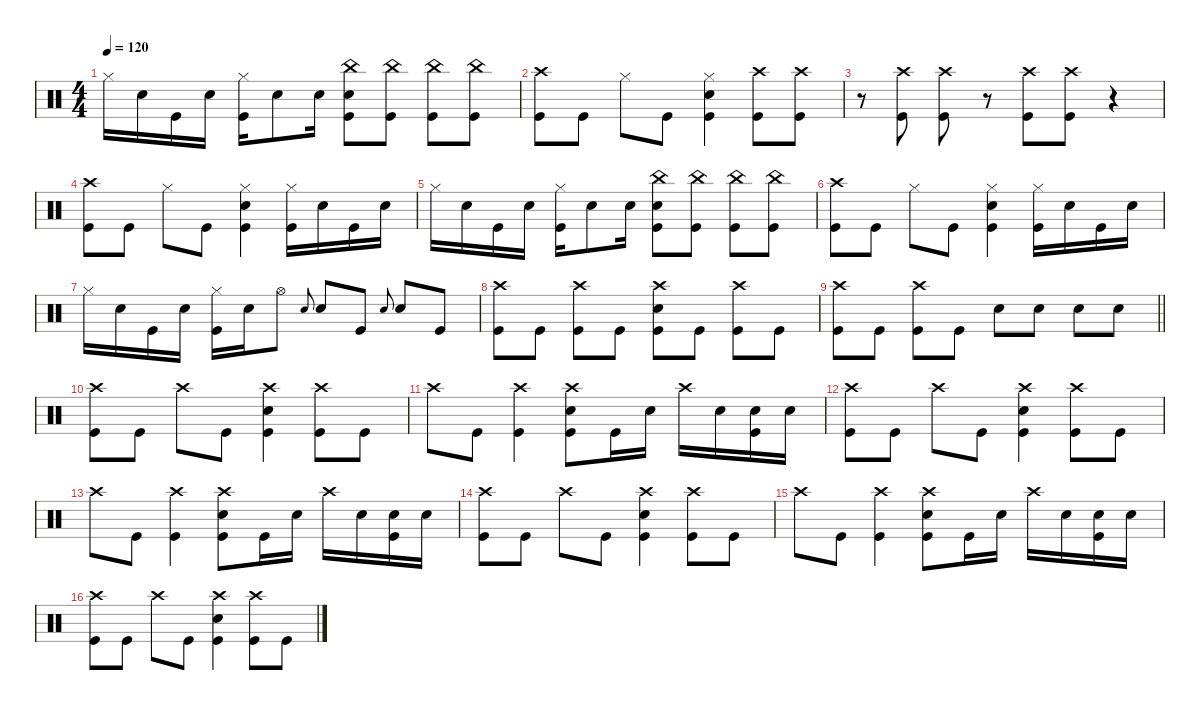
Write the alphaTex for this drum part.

\defaultSystemsLayout 4
\hideDynamics
\bracketExtendMode nobrackets
\singleTrackTrackNamePolicy hidden
\multiTrackTrackNamePolicy hidden
\firstSystemTrackNameMode fullname
\firstSystemTrackNameOrientation horizontal
\otherSystemsTrackNameOrientation horizontal
\track ("Drums" "drm.") {instrument percussion}
\staff {score}
\articulation defaults
\ts (4 4)
\tempo 120
\clef neutral
\ks c "Hi-Hat (closed)".16{dy f beam Down} "Snare (hit) 2".16{beam Down} "Kick (hit)".16{beam Down} "Snare (hit) 2".16{beam Down}
("Hi-Hat (closed)" "Kick (hit)").16{beam Down} "Snare (hit) 2".8{beam Down} "Snare (hit) 2".16{beam Down} ("Kick (hit)" "Snare (hit) 2" "China (hit)").8{beam Down} ("Kick (hit)" "China (hit)").8{beam Down} ("Kick (hit)" "China (hit)").8{beam Down} ("Kick (hit)" "China (hit)").8{beam Down} |
("Crash high (hit)" "Kick (hit)").8{beam Down} "Kick (hit)".8{beam Down} "Hi-Hat (closed)".8{beam Down} "Kick (hit)".8{beam Down} ("Snare (hit) 2" "Hi-Hat (closed)" "Kick (hit)").4{beam Down} ("Crash high (hit)" "Kick (hit)").8{beam Down} ("Kick (hit)" "Crash high (hit)").8{beam Down} |
r.8{beam Down} ("Crash high (hit)" "Kick (hit)").8{beam Down} ("Kick (hit)" "Crash high (hit)").8{beam Down} r.8{beam Down} ("Kick (hit)" "Crash high (hit)").8{beam Down} ("Crash high (hit)" "Kick (hit)").8{beam Down} r.4{beam Down} |
("Crash high (hit)" "Kick (hit)").8{beam Down} "Kick (hit)".8{beam Down} "Hi-Hat (closed)".8{beam Down} "Kick (hit)".8{beam Down} ("Snare (hit) 2" "Hi-Hat (closed)" "Kick (hit)").4{beam Down} ("Hi-Hat (closed)" "Kick (hit)").16{beam Down} "Snare (hit) 2".16{beam Down} "Kick (hit)".16{beam Down} "Snare (hit) 2".16{beam Down} |
"Hi-Hat (closed)".16{beam Down} "Snare (hit) 2".16{beam Down} "Kick (hit)".16{beam Down} "Snare (hit) 2".16{beam Down} ("Hi-Hat (closed)" "Kick (hit)").16{beam Down} "Snare (hit) 2".8{beam Down} "Snare (hit) 2".16{beam Down} ("Kick (hit)" "Snare (hit) 2" "China (hit)").8{beam Down} ("Kick (hit)" "China (hit)").8{beam Down} ("Kick (hit)" "China (hit)").8{beam Down} ("Kick (hit)" "China (hit)").8{beam Down} |
("Kick (hit)" "Crash high (hit)").8{beam Down} "Kick (hit)".8{beam Down} "Hi-Hat (closed)".8{beam Down} "Kick (hit)".8{beam Down} ("Kick (hit)" "Snare (hit) 2" "Hi-Hat (closed)").4{beam Down} ("Kick (hit)" "Hi-Hat (closed)").16{beam Down} "Snare (hit) 2".16{beam Down} "Kick (hit)".16{beam Down} "Snare (hit) 2".16{beam Down} |
"Hi-Hat (closed)".16{beam Down} "Snare (hit) 2".16{beam Down} "Kick (hit)".16{beam Down} "Snare (hit) 2".16{beam Down} ("Kick (hit)" "Hi-Hat (closed)").16{beam Down} "Snare (hit) 2".16{beam Down} "Hi-Hat (open)".8{beam Down} "Snare (hit) 2".8{gr onbeat dy mp beam Up} "Snare (hit) 2".8{dy f beam Up} "Kick (hit)".8{beam Up} "Snare (hit) 2".8{gr onbeat dy mp beam Up} "Snare (hit) 2".8{dy f beam Up} "Kick (hit)".8{beam Up} |
("Kick (hit)" "Crash high (hit)").8{beam Down} "Kick (hit)".8{beam Down} ("Kick (hit)" "Crash high (hit)").8{beam Down} "Kick (hit)".8{beam Down} ("Kick (hit)" "Snare (hit) 2" "Crash high (hit)").8{beam Down} "Kick (hit)".8{beam Down} ("Kick (hit)" "Crash high (hit)").8{beam Down} "Kick (hit)".8{beam Down} |
\barLineRight lightlight
("Kick (hit)" "Crash high (hit)").8{beam Down} "Kick (hit)".8{beam Down} ("Kick (hit)" "Crash high (hit)").8{beam Down} "Kick (hit)".8{beam Down} "Snare (hit) 2".8{beam Down} "Snare (hit) 2".8{beam Down} "Snare (hit) 2".8{beam Down} "Snare (hit) 2".8{beam Down} |
("Crash high (hit)" "Kick (hit)").8{beam Down} "Kick (hit)".8{beam Down} "Crash high (hit)".8{beam Down} "Kick (hit)".8{beam Down} ("Snare (hit) 2" "Crash high (hit)" "Kick (hit)").4{beam Down} ("Crash high (hit)" "Kick (hit)").8{beam Down} "Kick (hit)".8{beam Down} |
"Crash high (hit)".8{beam Down} "Kick (hit)".8{beam Down} ("Crash high (hit)" "Kick (hit)").4{beam Down} ("Snare (hit) 2" "Crash high (hit)" "Kick (hit)").8{beam Down} "Kick (hit)".16{beam Down} "Snare (hit) 2".16{beam Down} "Crash high (hit)".16{beam Down} "Snare (hit) 2".16{beam Down} ("Kick (hit)" "Snare (hit) 2").16{beam Down} "Snare (hit) 2".16{beam Down} |
("Kick (hit)" "Crash high (hit)").8{beam Down} "Kick (hit)".8{beam Down} "Crash high (hit)".8{beam Down} "Kick (hit)".8{beam Down} ("Kick (hit)" "Snare (hit) 2" "Crash high (hit)").4{beam Down} ("Kick (hit)" "Crash high (hit)").8{beam Down} "Kick (hit)".8{beam Down} |
"Crash high (hit)".8{beam Down} "Kick (hit)".8{beam Down} ("Crash high (hit)" "Kick (hit)").4{beam Down} ("Snare (hit) 2" "Crash high (hit)" "Kick (hit)").8{beam Down} "Kick (hit)".16{beam Down} "Snare (hit) 2".16{beam Down} "Crash high (hit)".16{beam Down} "Snare (hit) 2".16{beam Down} ("Snare (hit) 2" "Kick (hit)").16{beam Down} "Snare (hit) 2".16{beam Down} |
("Kick (hit)" "Crash high (hit)").8{beam Down} "Kick (hit)".8{beam Down} "Crash high (hit)".8{beam Down} "Kick (hit)".8{beam Down} ("Kick (hit)" "Snare (hit) 2" "Crash high (hit)").4{beam Down} ("Kick (hit)" "Crash high (hit)").8{beam Down} "Kick (hit)".8{beam Down} |
"Crash high (hit)".8{beam Down} "Kick (hit)".8{beam Down} ("Kick (hit)" "Crash high (hit)").4{beam Down} ("Kick (hit)" "Snare (hit) 2" "Crash high (hit)").8{beam Down} "Kick (hit)".16{beam Down} "Snare (hit) 2".16{beam Down} "Crash high (hit)".16{beam Down} "Snare (hit) 2".16{beam Down} ("Snare (hit) 2" "Kick (hit)").16{beam Down} "Snare (hit) 2".16{beam Down} |
("Kick (hit)" "Crash high (hit)").8{beam Down} "Kick (hit)".8{beam Down} "Crash high (hit)".8{beam Down} "Kick (hit)".8{beam Down} ("Kick (hit)" "Snare (hit) 2" "Crash high (hit)").4{beam Down} ("Kick (hit)" "Crash high (hit)").8{beam Down} "Kick (hit)".8{beam Down}
